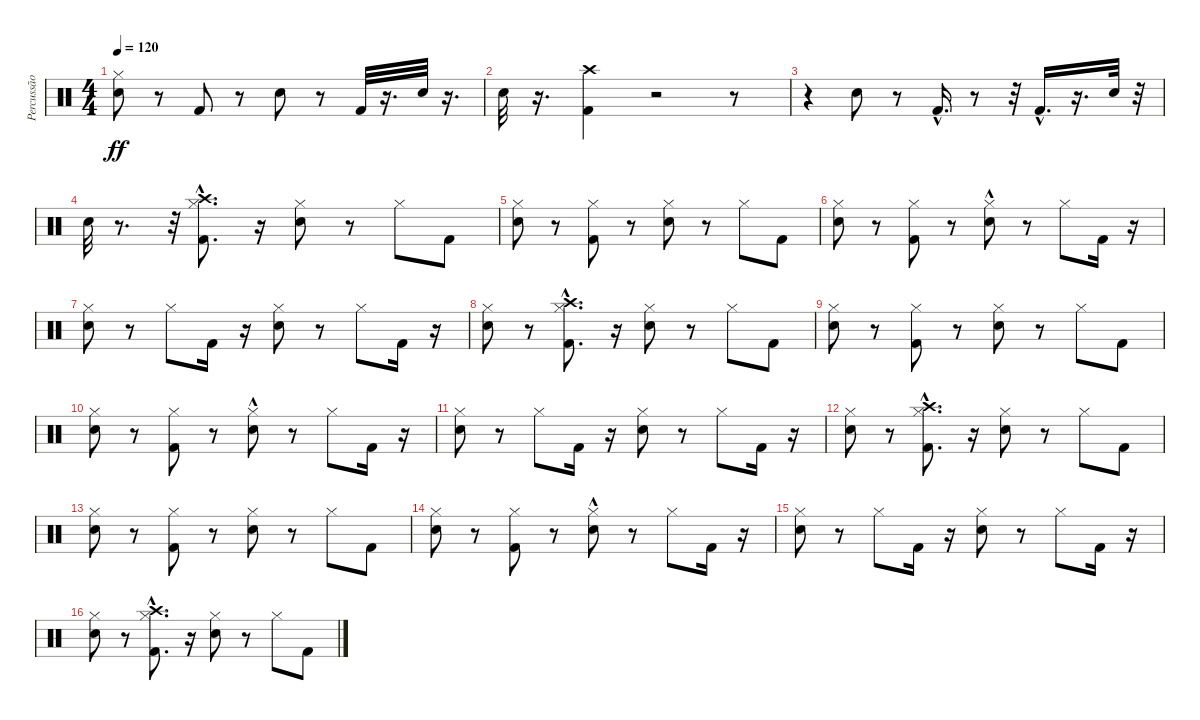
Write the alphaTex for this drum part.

\track ("Percussão" "Percussão") {instrument percussion}
\staff {score}
\articulation defaults
\ts (4 4)
\tempo 120
\clef neutral
\ks c
("Hi-Hat (closed)" "Snare (hit) 2").8{dy ff} r.8 "Kick (hit) 2".8 r.8 "Snare (hit) 2".8 r.8 "Kick (hit) 2".32 r.16{d} "Snare (hit) 2".32 r.16{d} |
"Snare (hit) 2".32 r.16{d} ("Kick (hit) 2" "Crash high (hit)").4 r.2 r.8 |
r.4 "Snare (hit) 2".8 r.8 "Kick (hit) 2"{hac}.16{d} r.8 r.32 "Kick (hit) 2"{hac}.16{d} r.16{d} "Snare (hit) 2".32 r.32 |
"Snare (hit) 2".32 r.8{d} r.32 ("Kick (hit) 2" "Hi-Hat (closed)" "Crash high (hit)"{hac}).8{d} r.16 ("Snare (hit) 2" "Hi-Hat (closed)").8 r.8 "Hi-Hat (closed)".8 "Kick (hit) 2".8 |
("Snare (hit) 2" "Hi-Hat (closed)").8 r.8 ("Kick (hit) 2" "Hi-Hat (closed)").8 r.8 ("Snare (hit) 2" "Hi-Hat (closed)").8 r.8 "Hi-Hat (closed)".8 "Kick (hit) 2".8 |
("Snare (hit) 2" "Hi-Hat (closed)").8 r.8 ("Kick (hit) 2" "Hi-Hat (closed)").8 r.8 ("Hi-Hat (closed)" "Snare (hit) 2"{hac}).8 r.8 "Hi-Hat (closed)".8 "Kick (hit) 2".16 r.16 |
("Hi-Hat (closed)" "Snare (hit) 2").8 r.8 "Hi-Hat (closed)".8 "Kick (hit) 2".16 r.16 ("Hi-Hat (closed)" "Snare (hit) 2").8 r.8 "Hi-Hat (closed)".8 "Kick (hit) 2".16 r.16 |
("Hi-Hat (closed)" "Snare (hit) 2").8 r.8 ("Kick (hit) 2" "Hi-Hat (closed)" "Crash high (hit)"{hac}).8{d} r.16 ("Snare (hit) 2" "Hi-Hat (closed)").8 r.8 "Hi-Hat (closed)".8 "Kick (hit) 2".8 |
("Snare (hit) 2" "Hi-Hat (closed)").8 r.8 ("Kick (hit) 2" "Hi-Hat (closed)").8 r.8 ("Snare (hit) 2" "Hi-Hat (closed)").8 r.8 "Hi-Hat (closed)".8 "Kick (hit) 2".8 |
("Snare (hit) 2" "Hi-Hat (closed)").8 r.8 ("Kick (hit) 2" "Hi-Hat (closed)").8 r.8 ("Hi-Hat (closed)" "Snare (hit) 2"{hac}).8 r.8 "Hi-Hat (closed)".8 "Kick (hit) 2".16 r.16 |
("Hi-Hat (closed)" "Snare (hit) 2").8 r.8 "Hi-Hat (closed)".8 "Kick (hit) 2".16 r.16 ("Hi-Hat (closed)" "Snare (hit) 2").8 r.8 "Hi-Hat (closed)".8 "Kick (hit) 2".16 r.16 |
("Hi-Hat (closed)" "Snare (hit) 2").8 r.8 ("Kick (hit) 2" "Hi-Hat (closed)" "Crash high (hit)"{hac}).8{d} r.16 ("Snare (hit) 2" "Hi-Hat (closed)").8 r.8 "Hi-Hat (closed)".8 "Kick (hit) 2".8 |
("Snare (hit) 2" "Hi-Hat (closed)").8 r.8 ("Kick (hit) 2" "Hi-Hat (closed)").8 r.8 ("Snare (hit) 2" "Hi-Hat (closed)").8 r.8 "Hi-Hat (closed)".8 "Kick (hit) 2".8 |
("Snare (hit) 2" "Hi-Hat (closed)").8 r.8 ("Kick (hit) 2" "Hi-Hat (closed)").8 r.8 ("Hi-Hat (closed)" "Snare (hit) 2"{hac}).8 r.8 "Hi-Hat (closed)".8 "Kick (hit) 2".16 r.16 |
("Hi-Hat (closed)" "Snare (hit) 2").8 r.8 "Hi-Hat (closed)".8 "Kick (hit) 2".16 r.16 ("Hi-Hat (closed)" "Snare (hit) 2").8 r.8 "Hi-Hat (closed)".8 "Kick (hit) 2".16 r.16 |
("Hi-Hat (closed)" "Snare (hit) 2").8 r.8 ("Kick (hit) 2" "Hi-Hat (closed)" "Crash high (hit)"{hac}).8{d} r.16 ("Snare (hit) 2" "Hi-Hat (closed)").8 r.8 "Hi-Hat (closed)".8 "Kick (hit) 2".8
